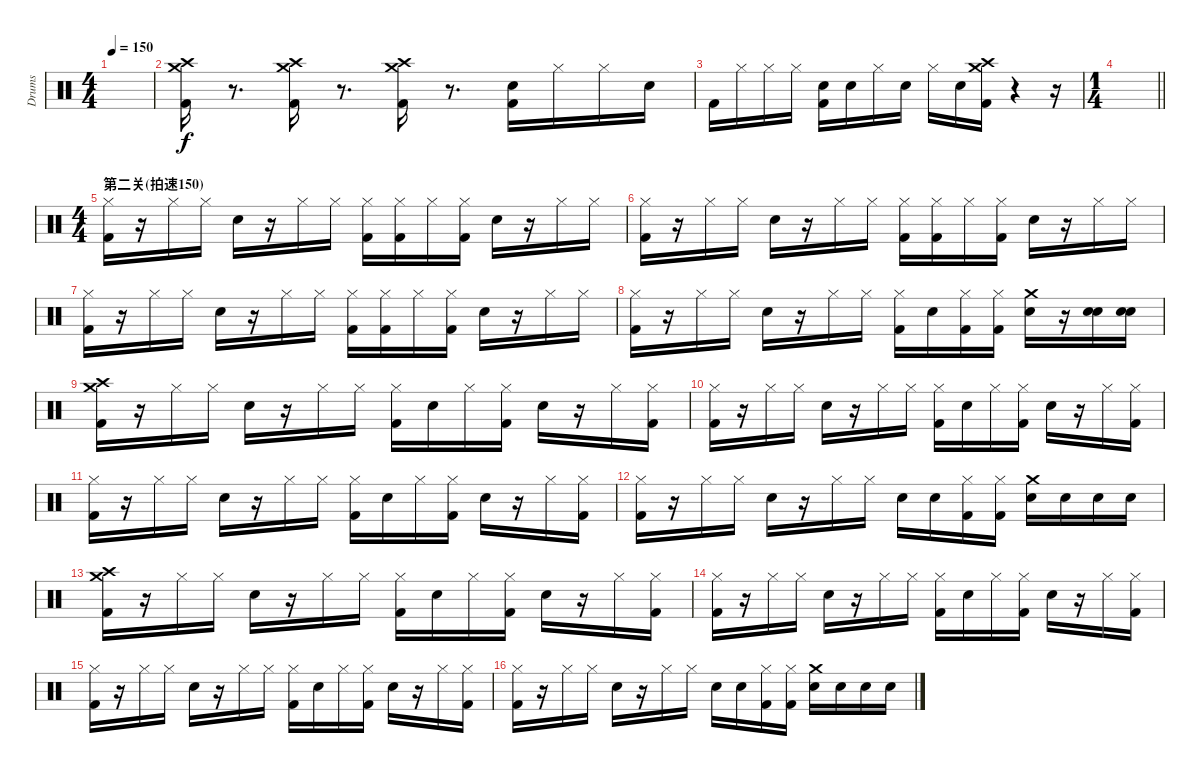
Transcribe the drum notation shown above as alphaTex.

\track ("Drums" "Drums") {instrument percussion}
\staff {score}
\articulation defaults
\ts (4 4)
\tempo 150
\clef neutral
\ks c
|
("Crash medium (hit)" "Crash high (hit)" "Kick (hit) 2").16 r.8{d} ("Crash medium (hit)" "Crash high (hit)" "Kick (hit) 2").16 r.8{d} ("Crash medium (hit)" "Crash high (hit)" "Kick (hit) 2").16 r.8{d} ("Snare (hit) 2" "Kick (hit) 2").16 "Hi-Hat (closed)".16 "Hi-Hat (closed)".16 "Snare (hit) 2".16 |
"Kick (hit) 2".16 "Hi-Hat (closed)".16 "Hi-Hat (closed)".16 "Hi-Hat (closed)".16 ("Snare (hit) 2" "Kick (hit) 2").16 "Snare (hit) 2".16 "Hi-Hat (closed)".16 "Snare (hit) 2".16 "Hi-Hat (closed)".16 "Snare (hit) 2".16 ("Crash medium (hit)" "Crash high (hit)" "Kick (hit) 2").16 r.4 r.16 |
\ts (1 4)
\barLineRight lightlight
|
\ts (4 4)
\section ("" "第二关(拍速150)")
("Hi-Hat (closed)" "Kick (hit) 2").16 r.16 "Hi-Hat (closed)".16 "Hi-Hat (closed)".16 "Snare (hit) 2".16 r.16 "Hi-Hat (closed)".16 "Hi-Hat (closed)".16 ("Hi-Hat (closed)" "Kick (hit) 2").16 ("Hi-Hat (closed)" "Kick (hit) 2").16 "Hi-Hat (closed)".16 ("Hi-Hat (closed)" "Kick (hit) 2").16 "Snare (hit) 2".16 r.16 "Hi-Hat (closed)".16 "Hi-Hat (closed)".16 |
("Hi-Hat (closed)" "Kick (hit) 2").16 r.16 "Hi-Hat (closed)".16 "Hi-Hat (closed)".16 "Snare (hit) 2".16 r.16 "Hi-Hat (closed)".16 "Hi-Hat (closed)".16 ("Hi-Hat (closed)" "Kick (hit) 2").16 ("Hi-Hat (closed)" "Kick (hit) 2").16 "Hi-Hat (closed)".16 ("Hi-Hat (closed)" "Kick (hit) 2").16 "Snare (hit) 2".16 r.16 "Hi-Hat (closed)".16 "Hi-Hat (closed)".16 |
("Hi-Hat (closed)" "Kick (hit) 2").16 r.16 "Hi-Hat (closed)".16 "Hi-Hat (closed)".16 "Snare (hit) 2".16 r.16 "Hi-Hat (closed)".16 "Hi-Hat (closed)".16 ("Hi-Hat (closed)" "Kick (hit) 2").16 ("Hi-Hat (closed)" "Kick (hit) 2").16 "Hi-Hat (closed)".16 ("Hi-Hat (closed)" "Kick (hit) 2").16 "Snare (hit) 2".16 r.16 "Hi-Hat (closed)".16 "Hi-Hat (closed)".16 |
("Hi-Hat (closed)" "Kick (hit) 2").16 r.16 "Hi-Hat (closed)".16 "Hi-Hat (closed)".16 "Snare (hit) 2".16 r.16 "Hi-Hat (closed)".16 "Hi-Hat (closed)".16 ("Hi-Hat (closed)" "Kick (hit) 2").16 "Snare (hit) 2".16 ("Hi-Hat (closed)" "Kick (hit) 2").16 ("Hi-Hat (closed)" "Kick (hit) 2").16 ("Crash medium (hit)" "Snare (hit) 2").16 r.16 ("Snare (hit) 2" "Snare (hit) 2").16 ("Snare (hit) 2" "Snare (hit) 2").16 |
("Crash medium (hit)" "Crash high (hit)" "Kick (hit) 2").16 r.16 "Hi-Hat (closed)".16 "Hi-Hat (closed)".16 "Snare (hit) 2".16 r.16 "Hi-Hat (closed)".16 "Hi-Hat (closed)".16 ("Hi-Hat (closed)" "Kick (hit) 2").16 "Snare (hit) 2".16 "Hi-Hat (closed)".16 ("Hi-Hat (closed)" "Kick (hit) 2").16 "Snare (hit) 2".16 r.16 "Hi-Hat (closed)".16 ("Hi-Hat (closed)" "Kick (hit) 2").16 |
("Hi-Hat (closed)" "Kick (hit) 2").16 r.16 "Hi-Hat (closed)".16 "Hi-Hat (closed)".16 "Snare (hit) 2".16 r.16 "Hi-Hat (closed)".16 "Hi-Hat (closed)".16 ("Hi-Hat (closed)" "Kick (hit) 2").16 "Snare (hit) 2".16 "Hi-Hat (closed)".16 ("Hi-Hat (closed)" "Kick (hit) 2").16 "Snare (hit) 2".16 r.16 "Hi-Hat (closed)".16 ("Hi-Hat (closed)" "Kick (hit) 2").16 |
("Hi-Hat (closed)" "Kick (hit) 2").16 r.16 "Hi-Hat (closed)".16 "Hi-Hat (closed)".16 "Snare (hit) 2".16 r.16 "Hi-Hat (closed)".16 "Hi-Hat (closed)".16 ("Hi-Hat (closed)" "Kick (hit) 2").16 "Snare (hit) 2".16 "Hi-Hat (closed)".16 ("Hi-Hat (closed)" "Kick (hit) 2").16 "Snare (hit) 2".16 r.16 "Hi-Hat (closed)".16 ("Hi-Hat (closed)" "Kick (hit) 2").16 |
("Hi-Hat (closed)" "Kick (hit) 2").16 r.16 "Hi-Hat (closed)".16 "Hi-Hat (closed)".16 "Snare (hit) 2".16 r.16 "Hi-Hat (closed)".16 "Hi-Hat (closed)".16 "Snare (hit) 2".16 "Snare (hit) 2".16 ("Hi-Hat (closed)" "Kick (hit) 2").16 ("Hi-Hat (closed)" "Kick (hit) 2").16 ("Crash medium (hit)" "Snare (hit) 2").16 "Snare (hit) 2".16 "Snare (hit) 2".16 "Snare (hit) 2".16 |
("Crash medium (hit)" "Crash high (hit)" "Kick (hit) 2").16 r.16 "Hi-Hat (closed)".16 "Hi-Hat (closed)".16 "Snare (hit) 2".16 r.16 "Hi-Hat (closed)".16 "Hi-Hat (closed)".16 ("Hi-Hat (closed)" "Kick (hit) 2").16 "Snare (hit) 2".16 "Hi-Hat (closed)".16 ("Hi-Hat (closed)" "Kick (hit) 2").16 "Snare (hit) 2".16 r.16 "Hi-Hat (closed)".16 ("Hi-Hat (closed)" "Kick (hit) 2").16 |
("Hi-Hat (closed)" "Kick (hit) 2").16 r.16 "Hi-Hat (closed)".16 "Hi-Hat (closed)".16 "Snare (hit) 2".16 r.16 "Hi-Hat (closed)".16 "Hi-Hat (closed)".16 ("Hi-Hat (closed)" "Kick (hit) 2").16 "Snare (hit) 2".16 "Hi-Hat (closed)".16 ("Hi-Hat (closed)" "Kick (hit) 2").16 "Snare (hit) 2".16 r.16 "Hi-Hat (closed)".16 ("Hi-Hat (closed)" "Kick (hit) 2").16 |
("Hi-Hat (closed)" "Kick (hit) 2").16 r.16 "Hi-Hat (closed)".16 "Hi-Hat (closed)".16 "Snare (hit) 2".16 r.16 "Hi-Hat (closed)".16 "Hi-Hat (closed)".16 ("Hi-Hat (closed)" "Kick (hit) 2").16 "Snare (hit) 2".16 "Hi-Hat (closed)".16 ("Hi-Hat (closed)" "Kick (hit) 2").16 "Snare (hit) 2".16 r.16 "Hi-Hat (closed)".16 ("Hi-Hat (closed)" "Kick (hit) 2").16 |
("Hi-Hat (closed)" "Kick (hit) 2").16 r.16 "Hi-Hat (closed)".16 "Hi-Hat (closed)".16 "Snare (hit) 2".16 r.16 "Hi-Hat (closed)".16 "Hi-Hat (closed)".16 "Snare (hit) 2".16 "Snare (hit) 2".16 ("Hi-Hat (closed)" "Kick (hit) 2").16 ("Hi-Hat (closed)" "Kick (hit) 2").16 ("Crash medium (hit)" "Snare (hit) 2").16 "Snare (hit) 2".16 "Snare (hit) 2".16 "Snare (hit) 2".16
